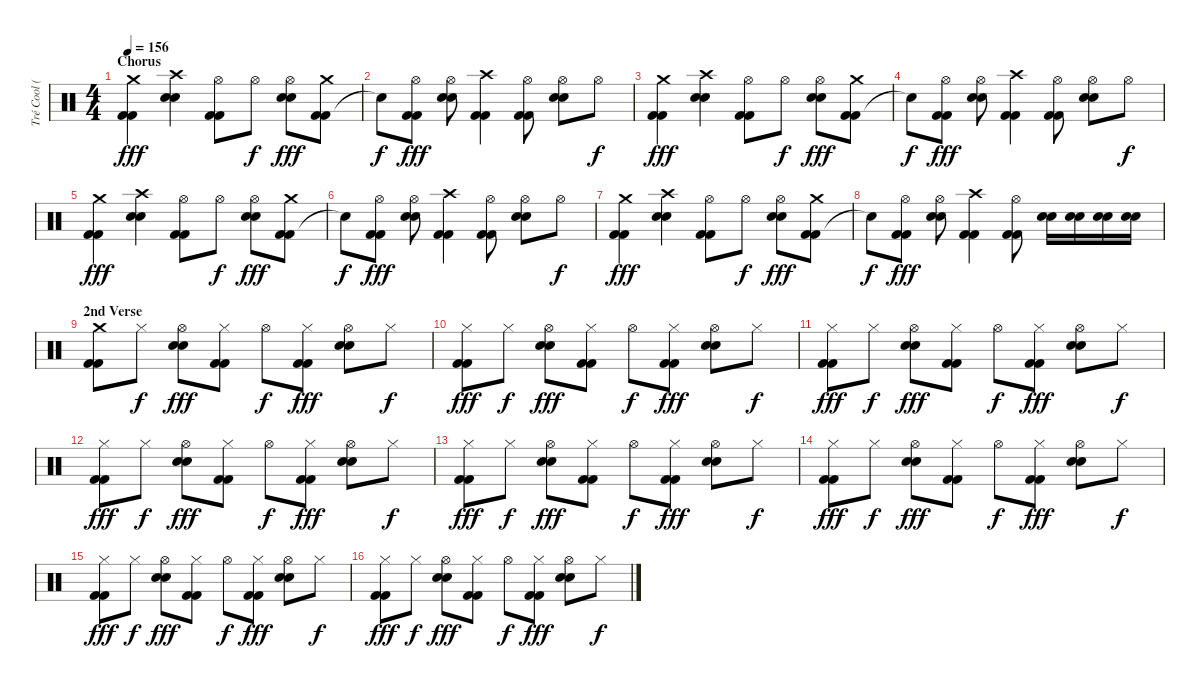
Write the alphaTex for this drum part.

\track ("Tré Cool (Drums)" "Tré Cool (") {instrument percussion}
\staff {score}
\articulation defaults
\ts (4 4)
\section ("" "Chorus")
\tempo 156
\clef neutral
\ks c
("Kick (hit) 2" "Kick (hit) 2" "Crash medium (hit)").4{dy fff} ("Electric Snare (hit)" "Electric Snare (hit)" "Crash high (hit)").4 ("Kick (hit) 2" "Kick (hit) 2" "Hi-Hat (open)").8 "Hi-Hat (open)".8{dy f} ("Electric Snare (hit)" "Electric Snare (hit)" "Hi-Hat (open)").8{dy fff} ("Kick (hit) 2" "Kick (hit) 2" "Crash medium (hit)").8 |
"Snare (hit)"{t}.8{dy f} ("Kick (hit) 2" "Kick (hit) 2" "Hi-Hat (open)").8{dy fff} ("Electric Snare (hit)" "Electric Snare (hit)" "Hi-Hat (open)").8 ("Kick (hit) 2" "Kick (hit) 2" "Crash high (hit)").4 ("Kick (hit) 2" "Kick (hit) 2" "Hi-Hat (open)").8 ("Electric Snare (hit)" "Electric Snare (hit)" "Hi-Hat (open)").8 "Hi-Hat (open)".8{dy f} |
("Kick (hit) 2" "Kick (hit) 2" "Crash medium (hit)").4{dy fff} ("Electric Snare (hit)" "Electric Snare (hit)" "Crash high (hit)").4 ("Kick (hit) 2" "Kick (hit) 2" "Hi-Hat (open)").8 "Hi-Hat (open)".8{dy f} ("Electric Snare (hit)" "Electric Snare (hit)" "Hi-Hat (open)").8{dy fff} ("Kick (hit) 2" "Kick (hit) 2" "Crash medium (hit)").8 |
"Snare (hit)"{t}.8{dy f} ("Kick (hit) 2" "Kick (hit) 2" "Hi-Hat (open)").8{dy fff} ("Electric Snare (hit)" "Electric Snare (hit)" "Hi-Hat (open)").8 ("Kick (hit) 2" "Kick (hit) 2" "Crash high (hit)").4 ("Kick (hit) 2" "Kick (hit) 2" "Hi-Hat (open)").8 ("Electric Snare (hit)" "Electric Snare (hit)" "Hi-Hat (open)").8 "Hi-Hat (open)".8{dy f} |
("Kick (hit) 2" "Kick (hit) 2" "Crash medium (hit)").4{dy fff} ("Electric Snare (hit)" "Electric Snare (hit)" "Crash high (hit)").4 ("Kick (hit) 2" "Kick (hit) 2" "Hi-Hat (open)").8 "Hi-Hat (open)".8{dy f} ("Electric Snare (hit)" "Electric Snare (hit)" "Hi-Hat (open)").8{dy fff} ("Kick (hit) 2" "Kick (hit) 2" "Crash medium (hit)").8 |
"Snare (hit)"{t}.8{dy f} ("Kick (hit) 2" "Kick (hit) 2" "Hi-Hat (open)").8{dy fff} ("Electric Snare (hit)" "Electric Snare (hit)" "Hi-Hat (open)").8 ("Kick (hit) 2" "Kick (hit) 2" "Crash high (hit)").4 ("Kick (hit) 2" "Kick (hit) 2" "Hi-Hat (open)").8 ("Electric Snare (hit)" "Electric Snare (hit)" "Hi-Hat (open)").8 "Hi-Hat (open)".8{dy f} |
("Kick (hit) 2" "Kick (hit) 2" "Crash medium (hit)").4{dy fff} ("Electric Snare (hit)" "Electric Snare (hit)" "Crash high (hit)").4 ("Kick (hit) 2" "Kick (hit) 2" "Hi-Hat (open)").8 "Hi-Hat (open)".8{dy f} ("Electric Snare (hit)" "Electric Snare (hit)" "Hi-Hat (open)").8{dy fff} ("Kick (hit) 2" "Kick (hit) 2" "Crash medium (hit)").8 |
"Snare (hit)"{t}.8{dy f} ("Kick (hit) 2" "Kick (hit) 2" "Hi-Hat (open)").8{dy fff} ("Electric Snare (hit)" "Electric Snare (hit)" "Hi-Hat (open)").8 ("Kick (hit) 2" "Kick (hit) 2" "Crash high (hit)").4 ("Kick (hit) 2" "Kick (hit) 2" "Hi-Hat (open)").8 ("Electric Snare (hit)" "Electric Snare (hit)").16 ("Electric Snare (hit)" "Electric Snare (hit)").16 ("Electric Snare (hit)" "Electric Snare (hit)").16 ("Electric Snare (hit)" "Electric Snare (hit)").16 |
\section ("" "2nd Verse")
("Kick (hit) 2" "Kick (hit) 2" "Crash medium (hit)").8 "Hi-Hat (closed)".8{dy f} ("Electric Snare (hit)" "Electric Snare (hit)" "Hi-Hat (open)").8{dy fff} ("Kick (hit) 2" "Kick (hit) 2" "Hi-Hat (closed)").8 "Hi-Hat (open)".8{dy f} ("Kick (hit) 2" "Kick (hit) 2" "Hi-Hat (closed)").8{dy fff} ("Electric Snare (hit)" "Electric Snare (hit)" "Hi-Hat (open)").8 "Hi-Hat (closed)".8{dy f} |
("Kick (hit) 2" "Kick (hit) 2" "Hi-Hat (closed)").8{dy fff} "Hi-Hat (closed)".8{dy f} ("Electric Snare (hit)" "Electric Snare (hit)" "Hi-Hat (open)").8{dy fff} ("Kick (hit) 2" "Kick (hit) 2" "Hi-Hat (closed)").8 "Hi-Hat (open)".8{dy f} ("Kick (hit) 2" "Kick (hit) 2" "Hi-Hat (closed)").8{dy fff} ("Electric Snare (hit)" "Electric Snare (hit)" "Hi-Hat (open)").8 "Hi-Hat (closed)".8{dy f} |
("Kick (hit) 2" "Kick (hit) 2" "Hi-Hat (closed)").8{dy fff} "Hi-Hat (closed)".8{dy f} ("Electric Snare (hit)" "Electric Snare (hit)" "Hi-Hat (open)").8{dy fff} ("Kick (hit) 2" "Kick (hit) 2" "Hi-Hat (closed)").8 "Hi-Hat (open)".8{dy f} ("Kick (hit) 2" "Kick (hit) 2" "Hi-Hat (closed)").8{dy fff} ("Electric Snare (hit)" "Electric Snare (hit)" "Hi-Hat (open)").8 "Hi-Hat (closed)".8{dy f} |
("Kick (hit) 2" "Kick (hit) 2" "Hi-Hat (closed)").8{dy fff} "Hi-Hat (closed)".8{dy f} ("Electric Snare (hit)" "Electric Snare (hit)" "Hi-Hat (open)").8{dy fff} ("Kick (hit) 2" "Kick (hit) 2" "Hi-Hat (closed)").8 "Hi-Hat (open)".8{dy f} ("Kick (hit) 2" "Kick (hit) 2" "Hi-Hat (closed)").8{dy fff} ("Electric Snare (hit)" "Electric Snare (hit)" "Hi-Hat (open)").8 "Hi-Hat (closed)".8{dy f} |
("Kick (hit) 2" "Kick (hit) 2" "Hi-Hat (closed)").8{dy fff} "Hi-Hat (closed)".8{dy f} ("Electric Snare (hit)" "Electric Snare (hit)" "Hi-Hat (open)").8{dy fff} ("Kick (hit) 2" "Kick (hit) 2" "Hi-Hat (closed)").8 "Hi-Hat (open)".8{dy f} ("Kick (hit) 2" "Kick (hit) 2" "Hi-Hat (closed)").8{dy fff} ("Electric Snare (hit)" "Electric Snare (hit)" "Hi-Hat (open)").8 "Hi-Hat (closed)".8{dy f} |
("Kick (hit) 2" "Kick (hit) 2" "Hi-Hat (closed)").8{dy fff} "Hi-Hat (closed)".8{dy f} ("Electric Snare (hit)" "Electric Snare (hit)" "Hi-Hat (open)").8{dy fff} ("Kick (hit) 2" "Kick (hit) 2" "Hi-Hat (closed)").8 "Hi-Hat (open)".8{dy f} ("Kick (hit) 2" "Kick (hit) 2" "Hi-Hat (closed)").8{dy fff} ("Electric Snare (hit)" "Electric Snare (hit)" "Hi-Hat (open)").8 "Hi-Hat (closed)".8{dy f} |
("Kick (hit) 2" "Kick (hit) 2" "Hi-Hat (closed)").8{dy fff} "Hi-Hat (closed)".8{dy f} ("Electric Snare (hit)" "Electric Snare (hit)" "Hi-Hat (open)").8{dy fff} ("Kick (hit) 2" "Kick (hit) 2" "Hi-Hat (closed)").8 "Hi-Hat (open)".8{dy f} ("Kick (hit) 2" "Kick (hit) 2" "Hi-Hat (closed)").8{dy fff} ("Electric Snare (hit)" "Electric Snare (hit)" "Hi-Hat (open)").8 "Hi-Hat (closed)".8{dy f} |
("Kick (hit) 2" "Kick (hit) 2" "Hi-Hat (closed)").8{dy fff} "Hi-Hat (closed)".8{dy f} ("Electric Snare (hit)" "Electric Snare (hit)" "Hi-Hat (open)").8{dy fff} ("Kick (hit) 2" "Kick (hit) 2" "Hi-Hat (closed)").8 "Hi-Hat (open)".8{dy f} ("Kick (hit) 2" "Kick (hit) 2" "Hi-Hat (closed)").8{dy fff} ("Electric Snare (hit)" "Electric Snare (hit)" "Hi-Hat (open)").8 "Hi-Hat (closed)".8{dy f}
